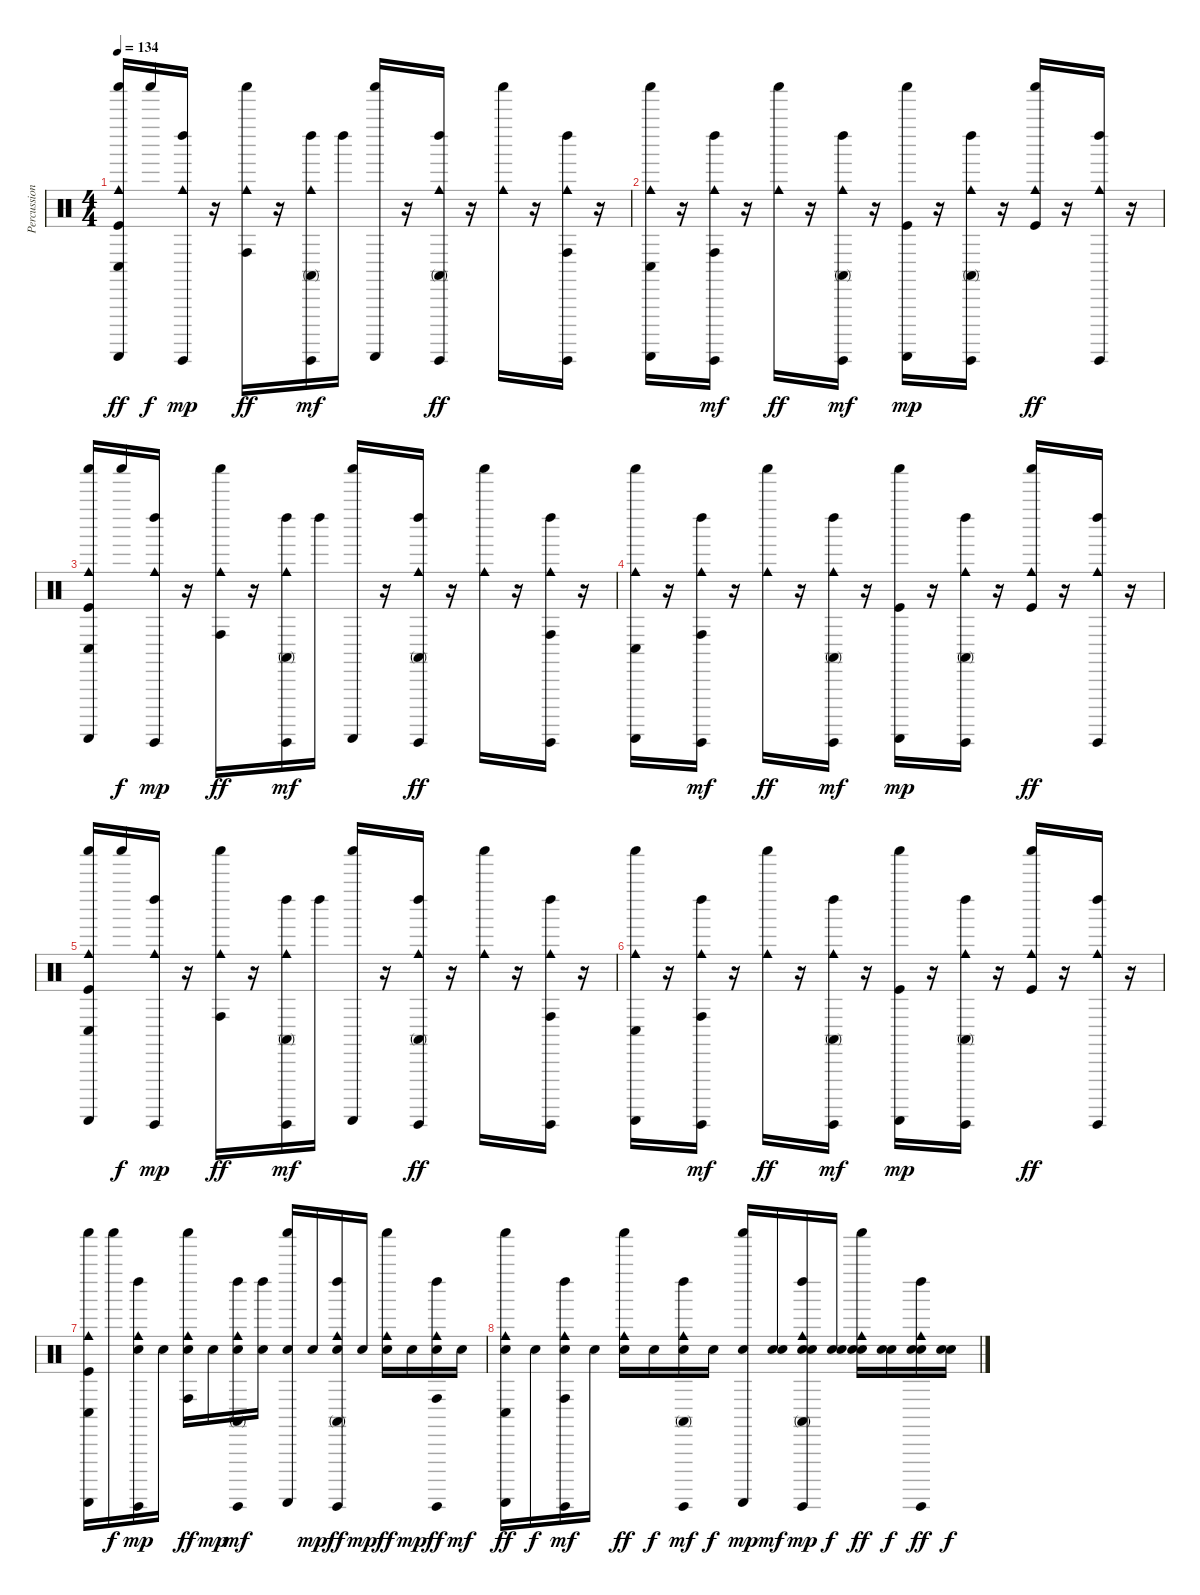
\track ("Percussion" "Percussion") {instrument percussion}
\staff {score}
\articulation defaults
\ts (4 4)
\tempo 134
\clef neutral
\ks c
("Kick (hit)" "Cowbell medium (hit)" "Conga low (hit)" "Guiro (scrap-return)" "Shaker (hit)").16{dy ff} "Shaker (hit)".16{dy f} ("Cowbell medium (hit)" "Left Maraca (hit)" "Guiro (hit)").16{dy mp} r.16 ("Cowbell medium (hit)" "Conga high (hit)" "Shaker (hit)").16{dy ff} r.16 ("Cowbell medium (hit)" "Conga high (mute)" "Left Maraca (hit)" "Guiro (hit)").16{dy mf} "Left Maraca (hit)".16 ("Guiro (scrap-return)" "Shaker (hit)").16 r.16 ("Cowbell medium (hit)" "Conga high (mute)" "Left Maraca (hit)" "Guiro (hit)").16{dy ff} r.16 ("Cowbell medium (hit)" "Shaker (hit)").16 r.16 ("Cowbell medium (hit)" "Conga high (hit)" "Left Maraca (hit)" "Guiro (hit)").16 r.16 |
("Cowbell medium (hit)" "Conga low (hit)" "Guiro (scrap-return)" "Shaker (hit)").16 r.16 ("Cowbell medium (hit)" "Conga high (hit)" "Left Maraca (hit)" "Guiro (hit)").16{dy mf} r.16 ("Cowbell medium (hit)" "Shaker (hit)").16{dy ff} r.16 ("Cowbell medium (hit)" "Conga high (mute)" "Left Maraca (hit)" "Guiro (hit)").16{dy mf} r.16 ("Kick (hit)" "Guiro (scrap-return)" "Shaker (hit)").16{dy mp} r.16 ("Cowbell medium (hit)" "Conga high (mute)" "Left Maraca (hit)" "Guiro (hit)").16 r.16 ("Kick (hit)" "Cowbell medium (hit)" "Shaker (hit)").16{dy ff} r.16 ("Cowbell medium (hit)" "Left Maraca (hit)" "Guiro (hit)").16 r.16 |
("Kick (hit)" "Cowbell medium (hit)" "Conga low (hit)" "Guiro (scrap-return)" "Shaker (hit)").16 "Shaker (hit)".16{dy f} ("Cowbell medium (hit)" "Left Maraca (hit)" "Guiro (hit)").16{dy mp} r.16 ("Cowbell medium (hit)" "Conga high (hit)" "Shaker (hit)").16{dy ff} r.16 ("Cowbell medium (hit)" "Conga high (mute)" "Left Maraca (hit)" "Guiro (hit)").16{dy mf} "Left Maraca (hit)".16 ("Guiro (scrap-return)" "Shaker (hit)").16 r.16 ("Cowbell medium (hit)" "Conga high (mute)" "Left Maraca (hit)" "Guiro (hit)").16{dy ff} r.16 ("Cowbell medium (hit)" "Shaker (hit)").16 r.16 ("Cowbell medium (hit)" "Conga high (hit)" "Left Maraca (hit)" "Guiro (hit)").16 r.16 |
("Cowbell medium (hit)" "Conga low (hit)" "Guiro (scrap-return)" "Shaker (hit)").16 r.16 ("Cowbell medium (hit)" "Conga high (hit)" "Left Maraca (hit)" "Guiro (hit)").16{dy mf} r.16 ("Cowbell medium (hit)" "Shaker (hit)").16{dy ff} r.16 ("Cowbell medium (hit)" "Conga high (mute)" "Left Maraca (hit)" "Guiro (hit)").16{dy mf} r.16 ("Kick (hit)" "Guiro (scrap-return)" "Shaker (hit)").16{dy mp} r.16 ("Cowbell medium (hit)" "Conga high (mute)" "Left Maraca (hit)" "Guiro (hit)").16 r.16 ("Kick (hit)" "Cowbell medium (hit)" "Shaker (hit)").16{dy ff} r.16 ("Cowbell medium (hit)" "Left Maraca (hit)" "Guiro (hit)").16 r.16 |
("Kick (hit)" "Cowbell medium (hit)" "Conga low (hit)" "Guiro (scrap-return)" "Shaker (hit)").16 "Shaker (hit)".16{dy f} ("Cowbell medium (hit)" "Left Maraca (hit)" "Guiro (hit)").16{dy mp} r.16 ("Cowbell medium (hit)" "Conga high (hit)" "Shaker (hit)").16{dy ff} r.16 ("Cowbell medium (hit)" "Conga high (mute)" "Left Maraca (hit)" "Guiro (hit)").16{dy mf} "Left Maraca (hit)".16 ("Guiro (scrap-return)" "Shaker (hit)").16 r.16 ("Cowbell medium (hit)" "Conga high (mute)" "Left Maraca (hit)" "Guiro (hit)").16{dy ff} r.16 ("Cowbell medium (hit)" "Shaker (hit)").16 r.16 ("Cowbell medium (hit)" "Conga high (hit)" "Left Maraca (hit)" "Guiro (hit)").16 r.16 |
("Cowbell medium (hit)" "Conga low (hit)" "Guiro (scrap-return)" "Shaker (hit)").16 r.16 ("Cowbell medium (hit)" "Conga high (hit)" "Left Maraca (hit)" "Guiro (hit)").16{dy mf} r.16 ("Cowbell medium (hit)" "Shaker (hit)").16{dy ff} r.16 ("Cowbell medium (hit)" "Conga high (mute)" "Left Maraca (hit)" "Guiro (hit)").16{dy mf} r.16 ("Kick (hit)" "Guiro (scrap-return)" "Shaker (hit)").16{dy mp} r.16 ("Cowbell medium (hit)" "Conga high (mute)" "Left Maraca (hit)" "Guiro (hit)").16 r.16 ("Kick (hit)" "Cowbell medium (hit)" "Shaker (hit)").16{dy ff} r.16 ("Cowbell medium (hit)" "Left Maraca (hit)" "Guiro (hit)").16 r.16 |
("Kick (hit)" "Cowbell medium (hit)" "Conga low (hit)" "Guiro (scrap-return)" "Shaker (hit)").16 "Shaker (hit)".16{dy f} ("Electric Snare (hit)" "Cowbell medium (hit)" "Left Maraca (hit)" "Guiro (hit)").16{dy mp} "Electric Snare (hit)".16 ("Electric Snare (hit)" "Cowbell medium (hit)" "Conga high (hit)" "Shaker (hit)").16{dy ff} "Electric Snare (hit)".16{dy mp} ("Electric Snare (hit)" "Cowbell medium (hit)" "Conga high (mute)" "Left Maraca (hit)" "Guiro (hit)").16{dy mf} ("Electric Snare (hit)" "Left Maraca (hit)").16 ("Electric Snare (hit)" "Guiro (scrap-return)" "Shaker (hit)").16 "Electric Snare (hit)".16{dy mp} ("Electric Snare (hit)" "Cowbell medium (hit)" "Conga high (mute)" "Left Maraca (hit)" "Guiro (hit)").16{dy ff} "Electric Snare (hit)".16{dy mp} ("Electric Snare (hit)" "Cowbell medium (hit)" "Shaker (hit)").16{dy ff} "Electric Snare (hit)".16{dy mp} ("Electric Snare (hit)" "Cowbell medium (hit)" "Conga high (hit)" "Left Maraca (hit)" "Guiro (hit)").16{dy ff} "Electric Snare (hit)".16{dy mf} |
("Electric Snare (hit)" "Cowbell medium (hit)" "Conga low (hit)" "Guiro (scrap-return)" "Shaker (hit)").16{dy ff} "Electric Snare (hit)".16{dy f} ("Electric Snare (hit)" "Cowbell medium (hit)" "Conga high (hit)" "Left Maraca (hit)" "Guiro (hit)").16{dy mf} "Electric Snare (hit)".16 ("Electric Snare (hit)" "Cowbell medium (hit)" "Shaker (hit)").16{dy ff} "Electric Snare (hit)".16{dy f} ("Electric Snare (hit)" "Cowbell medium (hit)" "Conga high (mute)" "Left Maraca (hit)" "Guiro (hit)").16{dy mf} "Electric Snare (hit)".16{dy f} ("Electric Snare (hit)" "Guiro (scrap-return)" "Shaker (hit)").16{dy mp} ("Electric Snare (hit)" "Electric Snare (hit)").16{dy mf} ("Electric Snare (hit)" "Electric Snare (hit)" "Cowbell medium (hit)" "Conga high (mute)" "Left Maraca (hit)" "Guiro (hit)").16{dy mp} ("Electric Snare (hit)" "Electric Snare (hit)").16{dy f} ("Electric Snare (hit)" "Electric Snare (hit)" "Cowbell medium (hit)" "Shaker (hit)").16{dy ff} ("Electric Snare (hit)" "Electric Snare (hit)").16{dy f} ("Electric Snare (hit)" "Electric Snare (hit)" "Cowbell medium (hit)" "Left Maraca (hit)" "Guiro (hit)").16{dy ff} ("Electric Snare (hit)" "Electric Snare (hit)").16{dy f}
